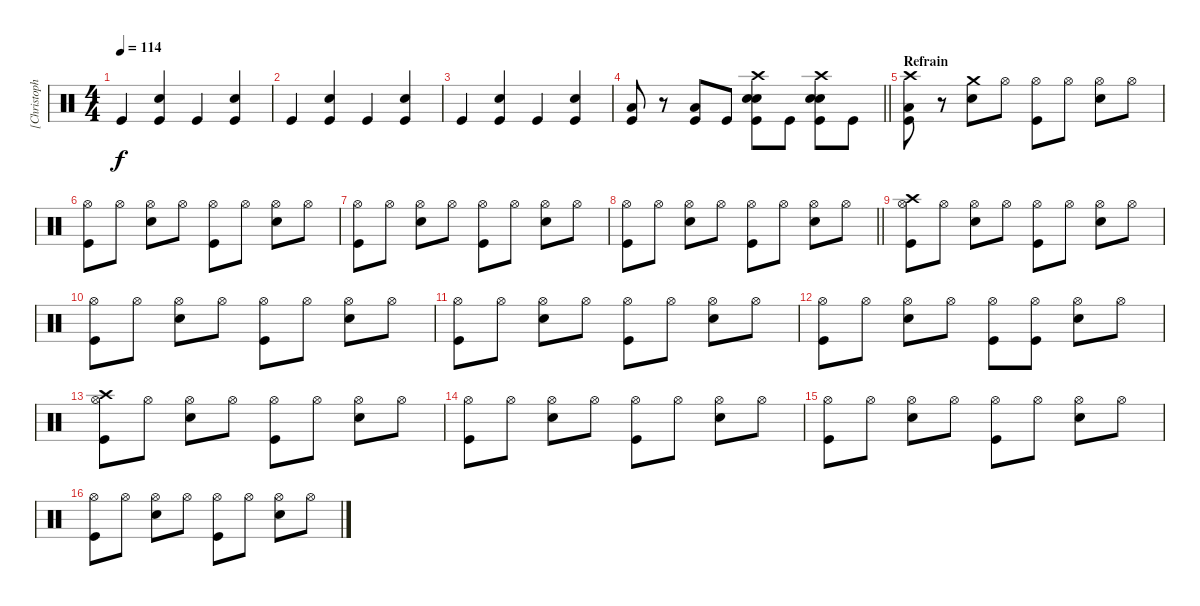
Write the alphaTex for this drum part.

\track ("[Christoph Schneider] ;Drums" "[Christoph") {solo instrument percussion}
\staff {score}
\articulation defaults
\ts (4 4)
\tempo 114
\clef neutral
\ks c "Kick (hit)".4{dy f}
("Kick (hit)" "Snare (hit) 2").4 "Kick (hit)".4 ("Kick (hit)" "Snare (hit) 2").4 |
"Kick (hit)".4 ("Kick (hit)" "Snare (hit) 2").4 "Kick (hit)".4 ("Kick (hit)" "Snare (hit) 2").4 |
"Kick (hit)".4 ("Kick (hit)" "Snare (hit) 2").4 "Kick (hit)".4 ("Kick (hit)" "Snare (hit) 2").4 |
\barLineRight lightlight
("Kick (hit)" "Low Floor Tom (hit)").8 r.8 ("Kick (hit)" "Low Floor Tom (hit)").8 "Kick (hit)".8 ("Kick (hit)" "Crash high (hit)" "Snare (hit) 2" "Snare (hit) 2").8 "Kick (hit)".8 ("Kick (hit)" "Crash high (hit)" "Snare (hit) 2" "Snare (hit) 2").8 "Kick (hit)".8 |
\section ("" "Refrain")
("Kick (hit)" "Crash high (hit)" "Low Floor Tom (hit)").8 r.8 ("Crash medium (hit)" "Snare (hit) 2").8 "Hi-Hat (open)".8 ("Kick (hit)" "Hi-Hat (open)").8 "Hi-Hat (open)".8 ("Hi-Hat (open)" "Snare (hit) 2").8 "Hi-Hat (open)".8 |
("Kick (hit)" "Hi-Hat (open)").8 "Hi-Hat (open)".8 ("Hi-Hat (open)" "Snare (hit) 2").8 "Hi-Hat (open)".8 ("Kick (hit)" "Hi-Hat (open)").8 "Hi-Hat (open)".8 ("Hi-Hat (open)" "Snare (hit) 2").8 "Hi-Hat (open)".8 |
("Kick (hit)" "Hi-Hat (open)").8 "Hi-Hat (open)".8 ("Hi-Hat (open)" "Snare (hit) 2").8 "Hi-Hat (open)".8 ("Kick (hit)" "Hi-Hat (open)").8 "Hi-Hat (open)".8 ("Hi-Hat (open)" "Snare (hit) 2").8 "Hi-Hat (open)".8 |
\barLineRight lightlight
("Kick (hit)" "Hi-Hat (open)").8 "Hi-Hat (open)".8 ("Hi-Hat (open)" "Snare (hit) 2").8 "Hi-Hat (open)".8 ("Kick (hit)" "Hi-Hat (open)").8 "Hi-Hat (open)".8 ("Hi-Hat (open)" "Snare (hit) 2").8 "Hi-Hat (open)".8 |
("Kick (hit)" "Crash high (hit)" "Hi-Hat (open)").8 "Hi-Hat (open)".8 ("Hi-Hat (open)" "Snare (hit) 2").8 "Hi-Hat (open)".8 ("Kick (hit)" "Hi-Hat (open)").8 "Hi-Hat (open)".8 ("Hi-Hat (open)" "Snare (hit) 2").8 "Hi-Hat (open)".8 |
("Kick (hit)" "Hi-Hat (open)").8 "Hi-Hat (open)".8 ("Hi-Hat (open)" "Snare (hit) 2").8 "Hi-Hat (open)".8 ("Kick (hit)" "Hi-Hat (open)").8 "Hi-Hat (open)".8 ("Hi-Hat (open)" "Snare (hit) 2").8 "Hi-Hat (open)".8 |
("Kick (hit)" "Hi-Hat (open)").8 "Hi-Hat (open)".8 ("Hi-Hat (open)" "Snare (hit) 2").8 "Hi-Hat (open)".8 ("Kick (hit)" "Hi-Hat (open)").8 "Hi-Hat (open)".8 ("Hi-Hat (open)" "Snare (hit) 2").8 "Hi-Hat (open)".8 |
("Kick (hit)" "Hi-Hat (open)").8 "Hi-Hat (open)".8 ("Snare (hit) 2" "Hi-Hat (open)").8 "Hi-Hat (open)".8 ("Kick (hit)" "Hi-Hat (open)").8 ("Kick (hit)" "Hi-Hat (open)").8 ("Snare (hit) 2" "Hi-Hat (open)").8 "Hi-Hat (open)".8 |
("Kick (hit)" "Hi-Hat (open)" "Crash high (hit)").8 "Hi-Hat (open)".8 ("Hi-Hat (open)" "Snare (hit) 2").8 "Hi-Hat (open)".8 ("Kick (hit)" "Hi-Hat (open)").8 "Hi-Hat (open)".8 ("Hi-Hat (open)" "Snare (hit) 2").8 "Hi-Hat (open)".8 |
("Kick (hit)" "Hi-Hat (open)").8 "Hi-Hat (open)".8 ("Hi-Hat (open)" "Snare (hit) 2").8 "Hi-Hat (open)".8 ("Kick (hit)" "Hi-Hat (open)").8 "Hi-Hat (open)".8 ("Hi-Hat (open)" "Snare (hit) 2").8 "Hi-Hat (open)".8 |
("Kick (hit)" "Hi-Hat (open)").8 "Hi-Hat (open)".8 ("Hi-Hat (open)" "Snare (hit) 2").8 "Hi-Hat (open)".8 ("Kick (hit)" "Hi-Hat (open)").8 "Hi-Hat (open)".8 ("Hi-Hat (open)" "Snare (hit) 2").8 "Hi-Hat (open)".8 |
("Kick (hit)" "Hi-Hat (open)").8 "Hi-Hat (open)".8 ("Hi-Hat (open)" "Snare (hit) 2").8 "Hi-Hat (open)".8 ("Kick (hit)" "Hi-Hat (open)").8 "Hi-Hat (open)".8 ("Hi-Hat (open)" "Snare (hit) 2").8 "Hi-Hat (open)".8
